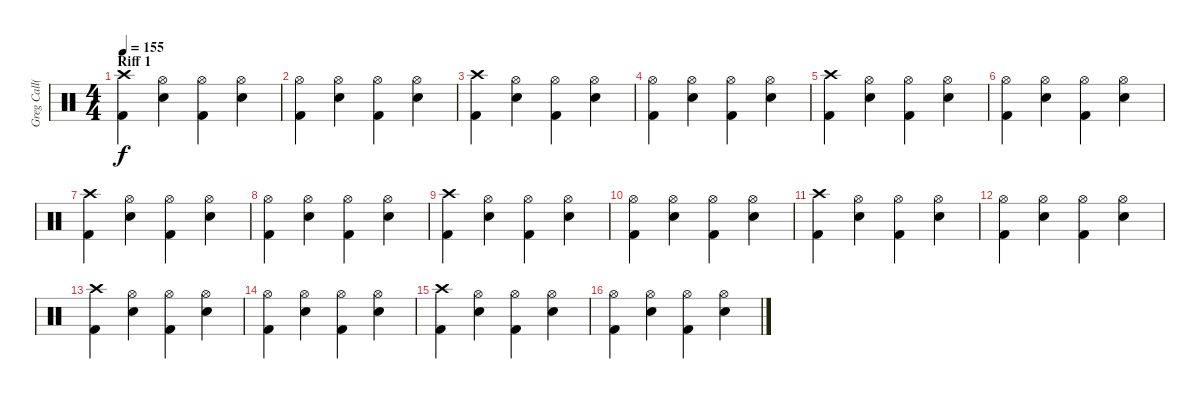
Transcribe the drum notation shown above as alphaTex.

\track ("Greg Call(Drums)" "Greg Call(") {instrument percussion}
\staff {score}
\articulation defaults
\ts (4 4)
\section ("" "Riff 1")
\tempo 155
\clef neutral
\ks c
("Kick (hit) 2" "Crash high (hit)").4{dy f} ("Snare (hit) 2" "Hi-Hat (open)").4 ("Kick (hit) 2" "Hi-Hat (open)").4 ("Snare (hit) 2" "Hi-Hat (open)").4 |
("Kick (hit) 2" "Hi-Hat (open)").4 ("Snare (hit) 2" "Hi-Hat (open)").4 ("Kick (hit) 2" "Hi-Hat (open)").4 ("Snare (hit) 2" "Hi-Hat (open)").4 |
("Kick (hit) 2" "Crash high (hit)").4 ("Snare (hit) 2" "Hi-Hat (open)").4 ("Kick (hit) 2" "Hi-Hat (open)").4 ("Snare (hit) 2" "Hi-Hat (open)").4 |
("Kick (hit) 2" "Hi-Hat (open)").4 ("Snare (hit) 2" "Hi-Hat (open)").4 ("Kick (hit) 2" "Hi-Hat (open)").4 ("Snare (hit) 2" "Hi-Hat (open)").4 |
("Kick (hit) 2" "Crash high (hit)").4 ("Snare (hit) 2" "Hi-Hat (open)").4 ("Kick (hit) 2" "Hi-Hat (open)").4 ("Snare (hit) 2" "Hi-Hat (open)").4 |
("Kick (hit) 2" "Hi-Hat (open)").4 ("Snare (hit) 2" "Hi-Hat (open)").4 ("Kick (hit) 2" "Hi-Hat (open)").4 ("Snare (hit) 2" "Hi-Hat (open)").4 |
("Kick (hit) 2" "Crash high (hit)").4 ("Snare (hit) 2" "Hi-Hat (open)").4 ("Kick (hit) 2" "Hi-Hat (open)").4 ("Snare (hit) 2" "Hi-Hat (open)").4 |
("Kick (hit) 2" "Hi-Hat (open)").4 ("Snare (hit) 2" "Hi-Hat (open)").4 ("Kick (hit) 2" "Hi-Hat (open)").4 ("Snare (hit) 2" "Hi-Hat (open)").4 |
("Kick (hit) 2" "Crash high (hit)").4 ("Snare (hit) 2" "Hi-Hat (open)").4 ("Kick (hit) 2" "Hi-Hat (open)").4 ("Snare (hit) 2" "Hi-Hat (open)").4 |
("Kick (hit) 2" "Hi-Hat (open)").4 ("Snare (hit) 2" "Hi-Hat (open)").4 ("Kick (hit) 2" "Hi-Hat (open)").4 ("Snare (hit) 2" "Hi-Hat (open)").4 |
("Kick (hit) 2" "Crash high (hit)").4 ("Snare (hit) 2" "Hi-Hat (open)").4 ("Kick (hit) 2" "Hi-Hat (open)").4 ("Snare (hit) 2" "Hi-Hat (open)").4 |
("Kick (hit) 2" "Hi-Hat (open)").4 ("Snare (hit) 2" "Hi-Hat (open)").4 ("Kick (hit) 2" "Hi-Hat (open)").4 ("Snare (hit) 2" "Hi-Hat (open)").4 |
("Kick (hit) 2" "Crash high (hit)").4 ("Snare (hit) 2" "Hi-Hat (open)").4 ("Kick (hit) 2" "Hi-Hat (open)").4 ("Snare (hit) 2" "Hi-Hat (open)").4 |
("Kick (hit) 2" "Hi-Hat (open)").4 ("Snare (hit) 2" "Hi-Hat (open)").4 ("Kick (hit) 2" "Hi-Hat (open)").4 ("Snare (hit) 2" "Hi-Hat (open)").4 |
("Kick (hit) 2" "Crash high (hit)").4 ("Snare (hit) 2" "Hi-Hat (open)").4 ("Kick (hit) 2" "Hi-Hat (open)").4 ("Snare (hit) 2" "Hi-Hat (open)").4 |
("Kick (hit) 2" "Hi-Hat (open)").4 ("Snare (hit) 2" "Hi-Hat (open)").4 ("Kick (hit) 2" "Hi-Hat (open)").4 ("Snare (hit) 2" "Hi-Hat (open)").4
